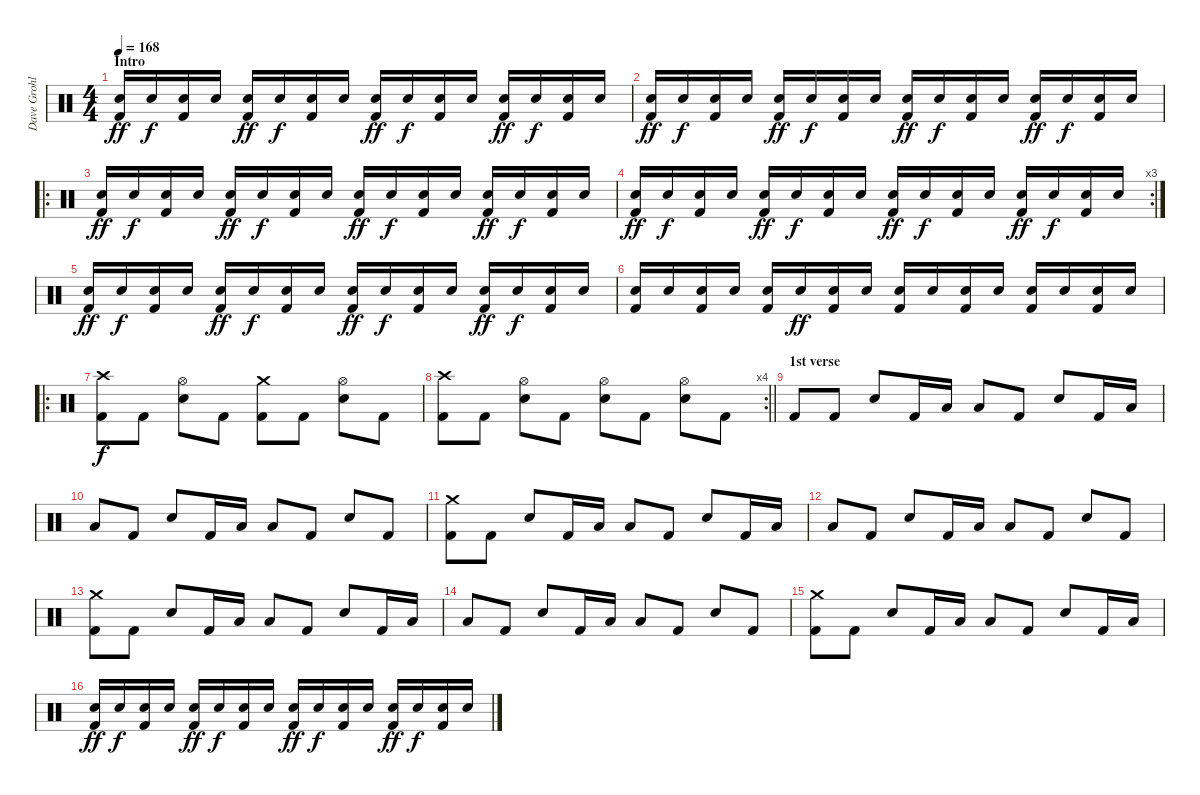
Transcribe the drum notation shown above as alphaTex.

\track ("Dave Grohl - Drums" "Dave Grohl") {instrument percussion}
\staff {score}
\articulation defaults
\ts (4 4)
\section ("" "Intro")
\tempo 168
\clef neutral
\ks c
("Electric Snare (hit)" "Kick (hit) 2").16{dy ff volume 12} "Electric Snare (hit)".16{dy f} ("Electric Snare (hit)" "Kick (hit) 2").16 "Electric Snare (hit)".16 ("Electric Snare (hit)" "Kick (hit) 2").16{dy ff} "Electric Snare (hit)".16{dy f} ("Electric Snare (hit)" "Kick (hit) 2").16 "Electric Snare (hit)".16 ("Electric Snare (hit)" "Kick (hit) 2").16{dy ff} "Electric Snare (hit)".16{dy f} ("Electric Snare (hit)" "Kick (hit) 2").16 "Electric Snare (hit)".16 ("Electric Snare (hit)" "Kick (hit) 2").16{dy ff} "Electric Snare (hit)".16{dy f} ("Electric Snare (hit)" "Kick (hit) 2").16 "Electric Snare (hit)".16 |
("Electric Snare (hit)" "Kick (hit) 2").16{dy ff} "Electric Snare (hit)".16{dy f} ("Electric Snare (hit)" "Kick (hit) 2").16 "Electric Snare (hit)".16 ("Electric Snare (hit)" "Kick (hit) 2").16{dy ff} "Electric Snare (hit)".16{dy f} ("Electric Snare (hit)" "Kick (hit) 2").16 "Electric Snare (hit)".16 ("Electric Snare (hit)" "Kick (hit) 2").16{dy ff} "Electric Snare (hit)".16{dy f} ("Electric Snare (hit)" "Kick (hit) 2").16 "Electric Snare (hit)".16 ("Electric Snare (hit)" "Kick (hit) 2").16{dy ff} "Electric Snare (hit)".16{dy f} ("Electric Snare (hit)" "Kick (hit) 2").16 "Electric Snare (hit)".16 |
\ro
("Electric Snare (hit)" "Kick (hit) 2").16{dy ff} "Electric Snare (hit)".16{dy f} ("Electric Snare (hit)" "Kick (hit) 2").16 "Electric Snare (hit)".16 ("Electric Snare (hit)" "Kick (hit) 2").16{dy ff} "Electric Snare (hit)".16{dy f} ("Electric Snare (hit)" "Kick (hit) 2").16 "Electric Snare (hit)".16 ("Electric Snare (hit)" "Kick (hit) 2").16{dy ff} "Electric Snare (hit)".16{dy f} ("Electric Snare (hit)" "Kick (hit) 2").16 "Electric Snare (hit)".16 ("Electric Snare (hit)" "Kick (hit) 2").16{dy ff} "Electric Snare (hit)".16{dy f} ("Electric Snare (hit)" "Kick (hit) 2").16 "Electric Snare (hit)".16 |
\rc 3
("Electric Snare (hit)" "Kick (hit) 2").16{dy ff} "Electric Snare (hit)".16{dy f} ("Electric Snare (hit)" "Kick (hit) 2").16 "Electric Snare (hit)".16 ("Electric Snare (hit)" "Kick (hit) 2").16{dy ff} "Electric Snare (hit)".16{dy f} ("Electric Snare (hit)" "Kick (hit) 2").16 "Electric Snare (hit)".16 ("Electric Snare (hit)" "Kick (hit) 2").16{dy ff} "Electric Snare (hit)".16{dy f} ("Electric Snare (hit)" "Kick (hit) 2").16 "Electric Snare (hit)".16 ("Electric Snare (hit)" "Kick (hit) 2").16{dy ff} "Electric Snare (hit)".16{dy f} ("Electric Snare (hit)" "Kick (hit) 2").16 "Electric Snare (hit)".16 |
("Electric Snare (hit)" "Kick (hit) 2").16{dy ff} "Electric Snare (hit)".16{dy f} ("Electric Snare (hit)" "Kick (hit) 2").16 "Electric Snare (hit)".16 ("Electric Snare (hit)" "Kick (hit) 2").16{dy ff} "Electric Snare (hit)".16{dy f} ("Electric Snare (hit)" "Kick (hit) 2").16 "Electric Snare (hit)".16 ("Electric Snare (hit)" "Kick (hit) 2").16{dy ff} "Electric Snare (hit)".16{dy f} ("Electric Snare (hit)" "Kick (hit) 2").16 "Electric Snare (hit)".16 ("Electric Snare (hit)" "Kick (hit) 2").16{dy ff} "Electric Snare (hit)".16{dy f} ("Electric Snare (hit)" "Kick (hit) 2").16 "Electric Snare (hit)".16 |
("Electric Snare (hit)" "Kick (hit) 2").16 "Electric Snare (hit)".16 ("Electric Snare (hit)" "Kick (hit) 2").16 "Electric Snare (hit)".16 ("Electric Snare (hit)" "Kick (hit) 2").16 "Electric Snare (hit)".16{dy ff} ("Electric Snare (hit)" "Kick (hit) 2").16 "Electric Snare (hit)".16 ("Electric Snare (hit)" "Kick (hit) 2").16 "Electric Snare (hit)".16 ("Electric Snare (hit)" "Kick (hit) 2").16 "Electric Snare (hit)".16 ("Electric Snare (hit)" "Kick (hit) 2").16 "Electric Snare (hit)".16 ("Electric Snare (hit)" "Kick (hit) 2").16 "Electric Snare (hit)".16 |
\ro
("Crash high (hit)" "Kick (hit) 2").8{dy f volume 13} "Kick (hit) 2".8 ("Hi-Hat (open)" "Electric Snare (hit)").8 "Kick (hit) 2".8 ("Crash medium (hit)" "Kick (hit) 2").8 "Kick (hit) 2".8 ("Hi-Hat (open)" "Electric Snare (hit)").8 "Kick (hit) 2".8 |
\rc 4
\barLineRight lightlight
("Crash high (hit)" "Kick (hit) 2").8{volume 13} "Kick (hit) 2".8 ("Hi-Hat (open)" "Electric Snare (hit)").8 "Kick (hit) 2".8 ("Hi-Hat (open)" "Electric Snare (hit)").8 "Kick (hit) 2".8 ("Hi-Hat (open)" "Electric Snare (hit)").8 "Kick (hit) 2".8 |
\section ("" "1st verse")
"Kick (hit) 2".8 "Kick (hit) 2".8 "Electric Snare (hit)".8 "Kick (hit) 2".16 "Low Floor Tom (hit)".16 "Low Tom (hit)".8 "Kick (hit) 2".8 "Electric Snare (hit)".8 "Kick (hit) 2".16 "Low Floor Tom (hit)".16 |
"Low Tom (hit)".8 "Kick (hit) 2".8 "Electric Snare (hit)".8 "Kick (hit) 2".16 "Low Floor Tom (hit)".16 "Low Tom (hit)".8 "Kick (hit) 2".8 "Electric Snare (hit)".8 "Kick (hit) 2".8 |
("Crash medium (hit)" "Kick (hit) 2").8 "Kick (hit) 2".8 "Electric Snare (hit)".8 "Kick (hit) 2".16 "Low Floor Tom (hit)".16 "Low Tom (hit)".8 "Kick (hit) 2".8 "Electric Snare (hit)".8 "Kick (hit) 2".16 "Low Floor Tom (hit)".16 |
"Low Tom (hit)".8 "Kick (hit) 2".8 "Electric Snare (hit)".8 "Kick (hit) 2".16 "Low Floor Tom (hit)".16 "Low Tom (hit)".8 "Kick (hit) 2".8 "Electric Snare (hit)".8 "Kick (hit) 2".8 |
("Crash medium (hit)" "Kick (hit) 2").8 "Kick (hit) 2".8 "Electric Snare (hit)".8 "Kick (hit) 2".16 "Low Floor Tom (hit)".16 "Low Tom (hit)".8 "Kick (hit) 2".8 "Electric Snare (hit)".8 "Kick (hit) 2".16 "Low Floor Tom (hit)".16 |
"Low Tom (hit)".8 "Kick (hit) 2".8 "Electric Snare (hit)".8 "Kick (hit) 2".16 "Low Floor Tom (hit)".16 "Low Tom (hit)".8 "Kick (hit) 2".8 "Electric Snare (hit)".8 "Kick (hit) 2".8 |
("Crash medium (hit)" "Kick (hit) 2").8 "Kick (hit) 2".8 "Electric Snare (hit)".8 "Kick (hit) 2".16 "Low Floor Tom (hit)".16 "Low Tom (hit)".8 "Kick (hit) 2".8 "Electric Snare (hit)".8 "Kick (hit) 2".16 "Low Floor Tom (hit)".16 |
("Electric Snare (hit)" "Kick (hit) 2").16{dy ff volume 12} "Electric Snare (hit)".16{dy f} ("Electric Snare (hit)" "Kick (hit) 2").16 "Electric Snare (hit)".16 ("Electric Snare (hit)" "Kick (hit) 2").16{dy ff} "Electric Snare (hit)".16{dy f} ("Electric Snare (hit)" "Kick (hit) 2").16 "Electric Snare (hit)".16 ("Electric Snare (hit)" "Kick (hit) 2").16{dy ff} "Electric Snare (hit)".16{dy f} ("Electric Snare (hit)" "Kick (hit) 2").16 "Electric Snare (hit)".16 ("Electric Snare (hit)" "Kick (hit) 2").16{dy ff} "Electric Snare (hit)".16{dy f} ("Electric Snare (hit)" "Kick (hit) 2").16 "Electric Snare (hit)".16
